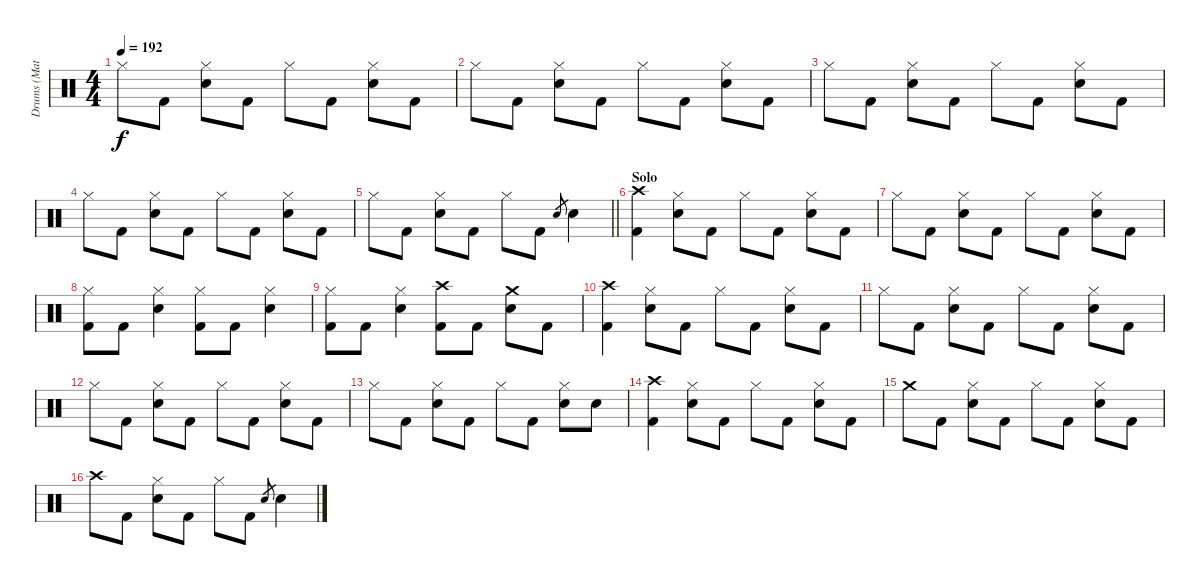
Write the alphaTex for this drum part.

\track ("Drums (Matt)" "Drums (Mat") {instrument percussion}
\staff {score}
\articulation defaults
\ts (4 4)
\tempo 192
\clef neutral
\ks c "Hi-Hat (closed)".8{dy f} "Kick (hit) 2".8
("Hi-Hat (closed)" "Snare (hit) 2").8 "Kick (hit) 2".8 "Hi-Hat (closed)".8 "Kick (hit) 2".8 ("Hi-Hat (closed)" "Snare (hit) 2").8 "Kick (hit) 2".8 |
"Hi-Hat (closed)".8 "Kick (hit) 2".8 ("Hi-Hat (closed)" "Snare (hit) 2").8 "Kick (hit) 2".8 "Hi-Hat (closed)".8 "Kick (hit) 2".8 ("Hi-Hat (closed)" "Snare (hit) 2").8 "Kick (hit) 2".8 |
"Hi-Hat (closed)".8 "Kick (hit) 2".8 ("Hi-Hat (closed)" "Snare (hit) 2").8 "Kick (hit) 2".8 "Hi-Hat (closed)".8 "Kick (hit) 2".8 ("Hi-Hat (closed)" "Snare (hit) 2").8 "Kick (hit) 2".8 |
"Hi-Hat (closed)".8 "Kick (hit) 2".8 ("Hi-Hat (closed)" "Snare (hit) 2").8 "Kick (hit) 2".8 "Hi-Hat (closed)".8 "Kick (hit) 2".8 ("Hi-Hat (closed)" "Snare (hit) 2").8 "Kick (hit) 2".8 |
\barLineRight lightlight "Hi-Hat (closed)".8 "Kick (hit) 2".8
("Hi-Hat (closed)" "Snare (hit) 2").8 "Kick (hit) 2".8 "Hi-Hat (closed)".8 "Kick (hit) 2".8 "Snare (hit) 2".8{gr} "Snare (hit) 2".4 |
\section ("" "Solo")
("Crash high (hit)" "Kick (hit) 2").4 ("Hi-Hat (closed)" "Snare (hit) 2").8 "Kick (hit) 2".8 "Hi-Hat (closed)".8 "Kick (hit) 2".8 ("Hi-Hat (closed)" "Snare (hit) 2").8 "Kick (hit) 2".8 |
"Hi-Hat (closed)".8 "Kick (hit) 2".8 ("Hi-Hat (closed)" "Snare (hit) 2").8 "Kick (hit) 2".8 "Hi-Hat (closed)".8 "Kick (hit) 2".8 ("Hi-Hat (closed)" "Snare (hit) 2").8 "Kick (hit) 2".8 |
("Hi-Hat (closed)" "Kick (hit) 2").8 "Kick (hit) 2".8 ("Hi-Hat (closed)" "Snare (hit) 2").4 ("Hi-Hat (closed)" "Kick (hit) 2").8 "Kick (hit) 2".8 ("Hi-Hat (closed)" "Snare (hit) 2").4 |
("Hi-Hat (closed)" "Kick (hit) 2").8 "Kick (hit) 2".8 ("Hi-Hat (closed)" "Snare (hit) 2").4 ("Crash high (hit)" "Kick (hit) 2").8 "Kick (hit) 2".8 ("Crash medium (hit)" "Snare (hit) 2").8 "Kick (hit) 2".8 |
("Crash high (hit)" "Kick (hit) 2").4 ("Hi-Hat (closed)" "Snare (hit) 2").8 "Kick (hit) 2".8 "Hi-Hat (closed)".8 "Kick (hit) 2".8 ("Hi-Hat (closed)" "Snare (hit) 2").8 "Kick (hit) 2".8 |
"Hi-Hat (closed)".8 "Kick (hit) 2".8 ("Hi-Hat (closed)" "Snare (hit) 2").8 "Kick (hit) 2".8 "Hi-Hat (closed)".8 "Kick (hit) 2".8 ("Hi-Hat (closed)" "Snare (hit) 2").8 "Kick (hit) 2".8 |
"Hi-Hat (closed)".8 "Kick (hit) 2".8 ("Hi-Hat (closed)" "Snare (hit) 2").8 "Kick (hit) 2".8 "Hi-Hat (closed)".8 "Kick (hit) 2".8 ("Hi-Hat (closed)" "Snare (hit) 2").8 "Kick (hit) 2".8 |
"Hi-Hat (closed)".8 "Kick (hit) 2".8 ("Hi-Hat (closed)" "Snare (hit) 2").8 "Kick (hit) 2".8 "Hi-Hat (closed)".8 "Kick (hit) 2".8 ("Hi-Hat (closed)" "Snare (hit) 2").8 "Snare (hit) 2".8 |
("Crash high (hit)" "Kick (hit) 2").4 ("Hi-Hat (closed)" "Snare (hit) 2").8 "Kick (hit) 2".8 "Hi-Hat (closed)".8 "Kick (hit) 2".8 ("Hi-Hat (closed)" "Snare (hit) 2").8 "Kick (hit) 2".8 |
"Crash medium (hit)".8 "Kick (hit) 2".8 ("Hi-Hat (closed)" "Snare (hit) 2").8 "Kick (hit) 2".8 "Hi-Hat (closed)".8 "Kick (hit) 2".8 ("Hi-Hat (closed)" "Snare (hit) 2").8 "Kick (hit) 2".8 |
"Crash high (hit)".8 "Kick (hit) 2".8 ("Hi-Hat (closed)" "Snare (hit) 2").8 "Kick (hit) 2".8 "Hi-Hat (closed)".8 "Kick (hit) 2".8 "Snare (hit) 2".8{gr} "Snare (hit) 2".4
